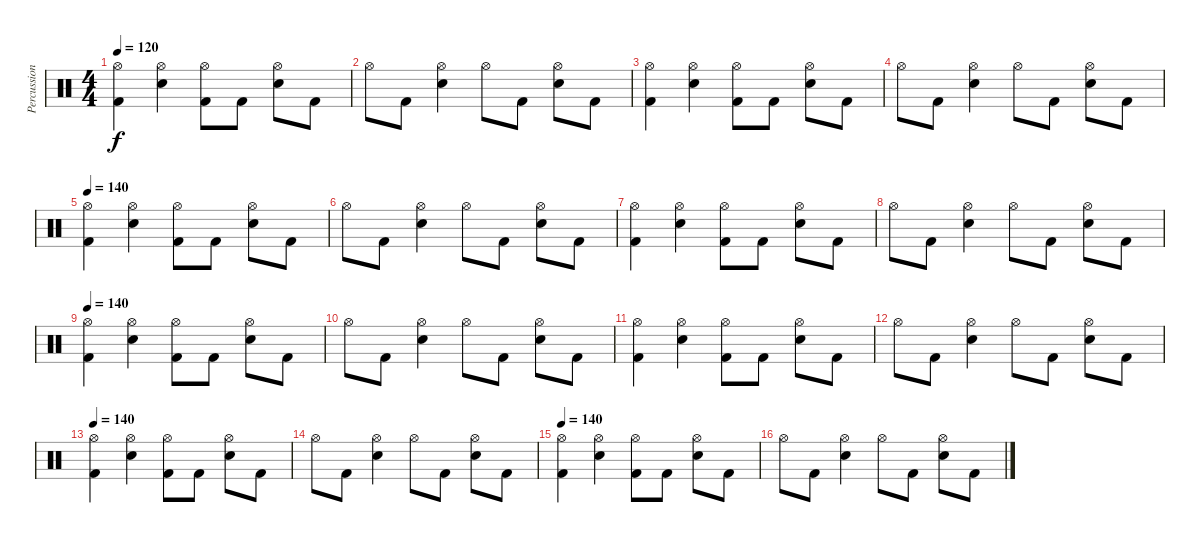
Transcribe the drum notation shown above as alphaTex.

\track ("Percussion" "Percussion") {instrument percussion}
\staff {score}
\articulation defaults
\ts (4 4)
\tempo 120
\tempo 140
\tempo 120
\clef neutral
\ks c
("Hi-Hat (open)" "Kick (hit) 2").4{dy f} ("Hi-Hat (open)" "Electric Snare (hit)").4 ("Hi-Hat (open)" "Kick (hit) 2").8 "Kick (hit) 2".8 ("Hi-Hat (open)" "Electric Snare (hit)").8 "Kick (hit) 2".8 |
"Hi-Hat (open)".8 "Kick (hit) 2".8 ("Hi-Hat (open)" "Electric Snare (hit)").4 "Hi-Hat (open)".8 "Kick (hit) 2".8 ("Hi-Hat (open)" "Electric Snare (hit)").8 "Kick (hit) 2".8 |
("Hi-Hat (open)" "Kick (hit) 2").4 ("Hi-Hat (open)" "Electric Snare (hit)").4 ("Hi-Hat (open)" "Kick (hit) 2").8 "Kick (hit) 2".8 ("Hi-Hat (open)" "Electric Snare (hit)").8 "Kick (hit) 2".8 |
"Hi-Hat (open)".8 "Kick (hit) 2".8 ("Hi-Hat (open)" "Electric Snare (hit)").4 "Hi-Hat (open)".8 "Kick (hit) 2".8 ("Hi-Hat (open)" "Electric Snare (hit)").8 "Kick (hit) 2".8 |
\tempo 140
("Hi-Hat (open)" "Kick (hit) 2").4 ("Hi-Hat (open)" "Electric Snare (hit)").4 ("Hi-Hat (open)" "Kick (hit) 2").8 "Kick (hit) 2".8 ("Hi-Hat (open)" "Electric Snare (hit)").8 "Kick (hit) 2".8 |
"Hi-Hat (open)".8 "Kick (hit) 2".8 ("Hi-Hat (open)" "Electric Snare (hit)").4 "Hi-Hat (open)".8 "Kick (hit) 2".8 ("Hi-Hat (open)" "Electric Snare (hit)").8 "Kick (hit) 2".8 |
("Hi-Hat (open)" "Kick (hit) 2").4 ("Hi-Hat (open)" "Electric Snare (hit)").4 ("Hi-Hat (open)" "Kick (hit) 2").8 "Kick (hit) 2".8 ("Hi-Hat (open)" "Electric Snare (hit)").8 "Kick (hit) 2".8 |
"Hi-Hat (open)".8 "Kick (hit) 2".8 ("Hi-Hat (open)" "Electric Snare (hit)").4 "Hi-Hat (open)".8 "Kick (hit) 2".8 ("Hi-Hat (open)" "Electric Snare (hit)").8 "Kick (hit) 2".8 |
\tempo 140
("Hi-Hat (open)" "Kick (hit) 2").4 ("Hi-Hat (open)" "Electric Snare (hit)").4 ("Hi-Hat (open)" "Kick (hit) 2").8 "Kick (hit) 2".8 ("Hi-Hat (open)" "Electric Snare (hit)").8 "Kick (hit) 2".8 |
"Hi-Hat (open)".8 "Kick (hit) 2".8 ("Hi-Hat (open)" "Electric Snare (hit)").4 "Hi-Hat (open)".8 "Kick (hit) 2".8 ("Hi-Hat (open)" "Electric Snare (hit)").8 "Kick (hit) 2".8 |
("Hi-Hat (open)" "Kick (hit) 2").4 ("Hi-Hat (open)" "Electric Snare (hit)").4 ("Hi-Hat (open)" "Kick (hit) 2").8 "Kick (hit) 2".8 ("Hi-Hat (open)" "Electric Snare (hit)").8 "Kick (hit) 2".8 |
"Hi-Hat (open)".8 "Kick (hit) 2".8 ("Hi-Hat (open)" "Electric Snare (hit)").4 "Hi-Hat (open)".8 "Kick (hit) 2".8 ("Hi-Hat (open)" "Electric Snare (hit)").8 "Kick (hit) 2".8 |
\tempo 140
("Hi-Hat (open)" "Kick (hit) 2").4 ("Hi-Hat (open)" "Electric Snare (hit)").4 ("Hi-Hat (open)" "Kick (hit) 2").8 "Kick (hit) 2".8 ("Hi-Hat (open)" "Electric Snare (hit)").8 "Kick (hit) 2".8 |
"Hi-Hat (open)".8 "Kick (hit) 2".8 ("Hi-Hat (open)" "Electric Snare (hit)").4 "Hi-Hat (open)".8 "Kick (hit) 2".8 ("Hi-Hat (open)" "Electric Snare (hit)").8 "Kick (hit) 2".8 |
\tempo 140
("Hi-Hat (open)" "Kick (hit) 2").4 ("Hi-Hat (open)" "Electric Snare (hit)").4 ("Hi-Hat (open)" "Kick (hit) 2").8 "Kick (hit) 2".8 ("Hi-Hat (open)" "Electric Snare (hit)").8 "Kick (hit) 2".8 |
"Hi-Hat (open)".8 "Kick (hit) 2".8 ("Hi-Hat (open)" "Electric Snare (hit)").4 "Hi-Hat (open)".8 "Kick (hit) 2".8 ("Hi-Hat (open)" "Electric Snare (hit)").8 "Kick (hit) 2".8
